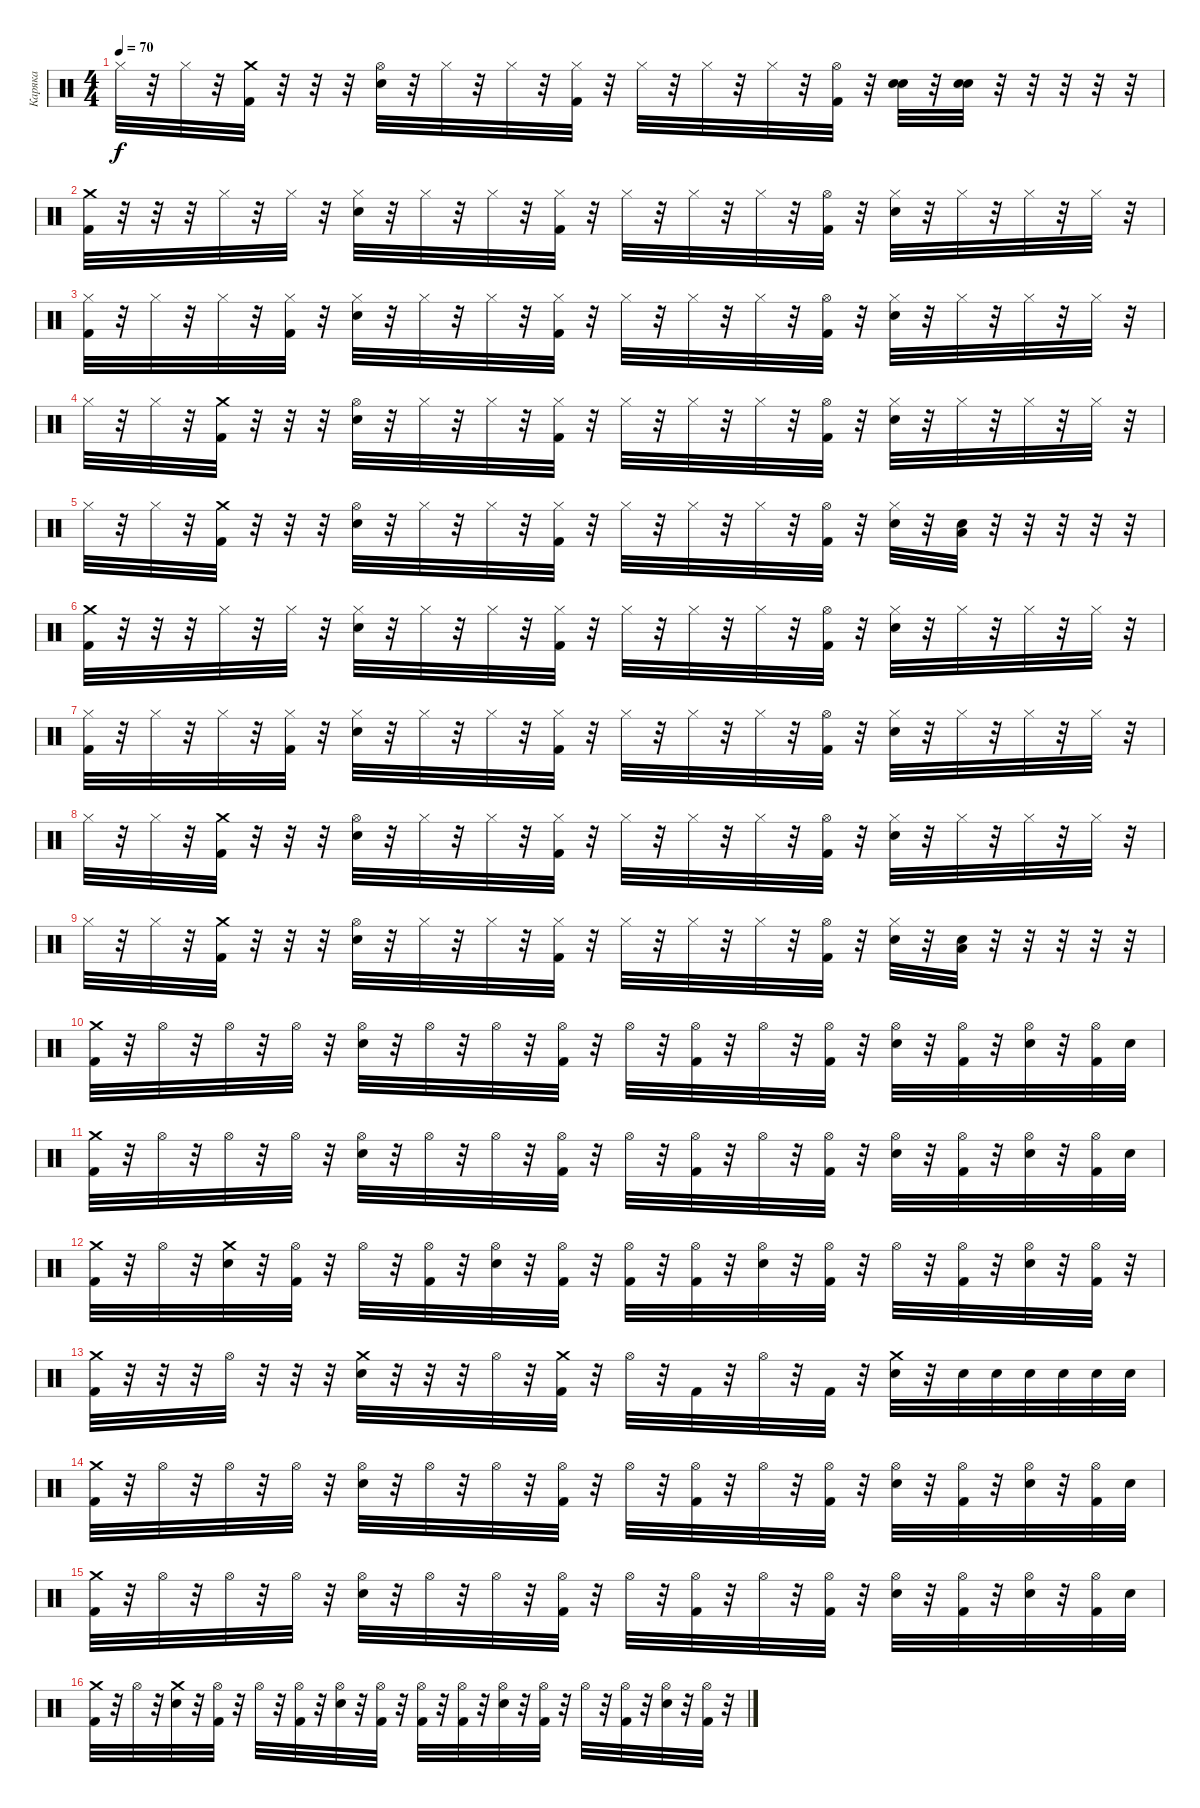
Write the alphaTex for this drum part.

\track ("Каряка" "Каряка") {instrument percussion}
\staff {score}
\articulation defaults
\ts (4 4)
\tempo 70
\clef neutral
\ks c "Hi-Hat (closed)".32{dy f}
r.32 "Hi-Hat (closed)".32 r.32 ("Crash medium (hit)" "Kick (hit) 2").32 r.32 r.32 r.32 ("Hi-Hat (open)" "Snare (hit) 2").32 r.32 "Hi-Hat (closed)".32 r.32 "Hi-Hat (closed)".32 r.32 ("Hi-Hat (closed)" "Kick (hit) 2").32 r.32 "Hi-Hat (closed)".32 r.32 "Hi-Hat (closed)".32 r.32 "Hi-Hat (closed)".32 r.32 ("Hi-Hat (open)" "Kick (hit) 2").32 r.32 ("Snare (hit) 2" "Snare (hit) 2").32 r.32 ("Snare (hit) 2" "Snare (hit) 2").32 r.32 r.32 r.32 r.32 r.32 |
("Crash medium (hit)" "Kick (hit) 2").32 r.32 r.32 r.32 "Hi-Hat (closed)".32 r.32 "Hi-Hat (closed)".32 r.32 ("Hi-Hat (closed)" "Snare (hit) 2").32 r.32 "Hi-Hat (closed)".32 r.32 "Hi-Hat (closed)".32 r.32 ("Hi-Hat (closed)" "Kick (hit) 2").32 r.32 "Hi-Hat (closed)".32 r.32 "Hi-Hat (closed)".32 r.32 "Hi-Hat (closed)".32 r.32 ("Hi-Hat (open)" "Kick (hit) 2").32 r.32 ("Hi-Hat (closed)" "Snare (hit) 2").32 r.32 "Hi-Hat (closed)".32 r.32 "Hi-Hat (closed)".32 r.32 "Hi-Hat (closed)".32 r.32 |
("Hi-Hat (closed)" "Kick (hit) 2").32 r.32 "Hi-Hat (closed)".32 r.32 "Hi-Hat (closed)".32 r.32 ("Hi-Hat (closed)" "Kick (hit) 2").32 r.32 ("Hi-Hat (closed)" "Snare (hit) 2").32 r.32 "Hi-Hat (closed)".32 r.32 "Hi-Hat (closed)".32 r.32 ("Hi-Hat (closed)" "Kick (hit) 2").32 r.32 "Hi-Hat (closed)".32 r.32 "Hi-Hat (closed)".32 r.32 "Hi-Hat (closed)".32 r.32 ("Hi-Hat (open)" "Kick (hit) 2").32 r.32 ("Hi-Hat (closed)" "Snare (hit) 2").32 r.32 "Hi-Hat (closed)".32 r.32 "Hi-Hat (closed)".32 r.32 "Hi-Hat (closed)".32 r.32 |
"Hi-Hat (closed)".32 r.32 "Hi-Hat (closed)".32 r.32 ("Crash medium (hit)" "Kick (hit) 2").32 r.32 r.32 r.32 ("Hi-Hat (open)" "Snare (hit) 2").32 r.32 "Hi-Hat (closed)".32 r.32 "Hi-Hat (closed)".32 r.32 ("Hi-Hat (closed)" "Kick (hit) 2").32 r.32 "Hi-Hat (closed)".32 r.32 "Hi-Hat (closed)".32 r.32 "Hi-Hat (closed)".32 r.32 ("Hi-Hat (open)" "Kick (hit) 2").32 r.32 ("Hi-Hat (closed)" "Snare (hit) 2").32 r.32 "Hi-Hat (closed)".32 r.32 "Hi-Hat (closed)".32 r.32 "Hi-Hat (closed)".32 r.32 |
"Hi-Hat (closed)".32 r.32 "Hi-Hat (closed)".32 r.32 ("Crash medium (hit)" "Kick (hit) 2").32 r.32 r.32 r.32 ("Hi-Hat (open)" "Snare (hit) 2").32 r.32 "Hi-Hat (closed)".32 r.32 "Hi-Hat (closed)".32 r.32 ("Hi-Hat (closed)" "Kick (hit) 2").32 r.32 "Hi-Hat (closed)".32 r.32 "Hi-Hat (closed)".32 r.32 "Hi-Hat (closed)".32 r.32 ("Hi-Hat (open)" "Kick (hit) 2").32 r.32 ("Hi-Hat (closed)" "Snare (hit) 2").32 r.32 ("Low Tom (hit)" "Snare (hit) 2").32 r.32 r.32 r.32 r.32 r.32 |
("Crash medium (hit)" "Kick (hit) 2").32 r.32 r.32 r.32 "Hi-Hat (closed)".32 r.32 "Hi-Hat (closed)".32 r.32 ("Hi-Hat (closed)" "Snare (hit) 2").32 r.32 "Hi-Hat (closed)".32 r.32 "Hi-Hat (closed)".32 r.32 ("Hi-Hat (closed)" "Kick (hit) 2").32 r.32 "Hi-Hat (closed)".32 r.32 "Hi-Hat (closed)".32 r.32 "Hi-Hat (closed)".32 r.32 ("Hi-Hat (open)" "Kick (hit) 2").32 r.32 ("Hi-Hat (closed)" "Snare (hit) 2").32 r.32 "Hi-Hat (closed)".32 r.32 "Hi-Hat (closed)".32 r.32 "Hi-Hat (closed)".32 r.32 |
("Hi-Hat (closed)" "Kick (hit) 2").32 r.32 "Hi-Hat (closed)".32 r.32 "Hi-Hat (closed)".32 r.32 ("Hi-Hat (closed)" "Kick (hit) 2").32 r.32 ("Hi-Hat (closed)" "Snare (hit) 2").32 r.32 "Hi-Hat (closed)".32 r.32 "Hi-Hat (closed)".32 r.32 ("Hi-Hat (closed)" "Kick (hit) 2").32 r.32 "Hi-Hat (closed)".32 r.32 "Hi-Hat (closed)".32 r.32 "Hi-Hat (closed)".32 r.32 ("Hi-Hat (open)" "Kick (hit) 2").32 r.32 ("Hi-Hat (closed)" "Snare (hit) 2").32 r.32 "Hi-Hat (closed)".32 r.32 "Hi-Hat (closed)".32 r.32 "Hi-Hat (closed)".32 r.32 |
"Hi-Hat (closed)".32 r.32 "Hi-Hat (closed)".32 r.32 ("Crash medium (hit)" "Kick (hit) 2").32 r.32 r.32 r.32 ("Hi-Hat (open)" "Snare (hit) 2").32 r.32 "Hi-Hat (closed)".32 r.32 "Hi-Hat (closed)".32 r.32 ("Hi-Hat (closed)" "Kick (hit) 2").32 r.32 "Hi-Hat (closed)".32 r.32 "Hi-Hat (closed)".32 r.32 "Hi-Hat (closed)".32 r.32 ("Hi-Hat (open)" "Kick (hit) 2").32 r.32 ("Hi-Hat (closed)" "Snare (hit) 2").32 r.32 "Hi-Hat (closed)".32 r.32 "Hi-Hat (closed)".32 r.32 "Hi-Hat (closed)".32 r.32 |
"Hi-Hat (closed)".32 r.32 "Hi-Hat (closed)".32 r.32 ("Crash medium (hit)" "Kick (hit) 2").32 r.32 r.32 r.32 ("Hi-Hat (open)" "Snare (hit) 2").32 r.32 "Hi-Hat (closed)".32 r.32 "Hi-Hat (closed)".32 r.32 ("Hi-Hat (closed)" "Kick (hit) 2").32 r.32 "Hi-Hat (closed)".32 r.32 "Hi-Hat (closed)".32 r.32 "Hi-Hat (closed)".32 r.32 ("Hi-Hat (open)" "Kick (hit) 2").32 r.32 ("Hi-Hat (closed)" "Snare (hit) 2").32 r.32 ("Low Tom (hit)" "Snare (hit) 2").32 r.32 r.32 r.32 r.32 r.32 |
("Crash medium (hit)" "Kick (hit) 2").32 r.32 "Hi-Hat (open)".32 r.32 "Hi-Hat (open)".32 r.32 "Hi-Hat (open)".32 r.32 ("Hi-Hat (open)" "Snare (hit) 2").32 r.32 "Hi-Hat (open)".32 r.32 "Hi-Hat (open)".32 r.32 ("Hi-Hat (open)" "Kick (hit) 2").32 r.32 "Hi-Hat (open)".32 r.32 ("Hi-Hat (open)" "Kick (hit) 2").32 r.32 "Hi-Hat (open)".32 r.32 ("Hi-Hat (open)" "Kick (hit) 2").32 r.32 ("Hi-Hat (open)" "Snare (hit) 2").32 r.32 ("Hi-Hat (open)" "Kick (hit) 2").32 r.32 ("Hi-Hat (open)" "Snare (hit) 2").32 r.32 ("Hi-Hat (open)" "Kick (hit) 2").32 "Snare (hit) 2".32 |
("Crash medium (hit)" "Kick (hit) 2").32 r.32 "Hi-Hat (open)".32 r.32 "Hi-Hat (open)".32 r.32 "Hi-Hat (open)".32 r.32 ("Hi-Hat (open)" "Snare (hit) 2").32 r.32 "Hi-Hat (open)".32 r.32 "Hi-Hat (open)".32 r.32 ("Hi-Hat (open)" "Kick (hit) 2").32 r.32 "Hi-Hat (open)".32 r.32 ("Hi-Hat (open)" "Kick (hit) 2").32 r.32 "Hi-Hat (open)".32 r.32 ("Hi-Hat (open)" "Kick (hit) 2").32 r.32 ("Hi-Hat (open)" "Snare (hit) 2").32 r.32 ("Hi-Hat (open)" "Kick (hit) 2").32 r.32 ("Hi-Hat (open)" "Snare (hit) 2").32 r.32 ("Hi-Hat (open)" "Kick (hit) 2").32 "Snare (hit) 2".32 |
("Crash medium (hit)" "Kick (hit) 2").32 r.32 "Hi-Hat (open)".32 r.32 ("Crash medium (hit)" "Snare (hit) 2").32 r.32 ("Hi-Hat (open)" "Kick (hit) 2").32 r.32 "Hi-Hat (open)".32 r.32 ("Hi-Hat (open)" "Kick (hit) 2").32 r.32 ("Hi-Hat (open)" "Snare (hit) 2").32 r.32 ("Hi-Hat (open)" "Kick (hit) 2").32 r.32 ("Hi-Hat (open)" "Kick (hit) 2").32 r.32 ("Hi-Hat (open)" "Kick (hit) 2").32 r.32 ("Hi-Hat (open)" "Snare (hit) 2").32 r.32 ("Hi-Hat (open)" "Kick (hit) 2").32 r.32 "Hi-Hat (open)".32 r.32 ("Hi-Hat (open)" "Kick (hit) 2").32 r.32 ("Hi-Hat (open)" "Snare (hit) 2").32 r.32 ("Hi-Hat (open)" "Kick (hit) 2").32 r.32 |
("Crash medium (hit)" "Kick (hit) 2").32 r.32 r.32 r.32 "Hi-Hat (open)".32 r.32 r.32 r.32 ("Crash medium (hit)" "Snare (hit) 2").32 r.32 r.32 r.32 "Hi-Hat (open)".32 r.32 ("Crash medium (hit)" "Kick (hit) 2").32 r.32 "Hi-Hat (open)".32 r.32 "Kick (hit) 2".32 r.32 "Hi-Hat (open)".32 r.32 "Kick (hit) 2".32 r.32 ("Crash medium (hit)" "Snare (hit) 2").32 r.32 "Snare (hit) 2".32 "Snare (hit) 2".32 "Snare (hit) 2".32 "Snare (hit) 2".32 "Snare (hit) 2".32 "Snare (hit) 2".32 |
("Crash medium (hit)" "Kick (hit) 2").32 r.32 "Hi-Hat (open)".32 r.32 "Hi-Hat (open)".32 r.32 "Hi-Hat (open)".32 r.32 ("Hi-Hat (open)" "Snare (hit) 2").32 r.32 "Hi-Hat (open)".32 r.32 "Hi-Hat (open)".32 r.32 ("Hi-Hat (open)" "Kick (hit) 2").32 r.32 "Hi-Hat (open)".32 r.32 ("Hi-Hat (open)" "Kick (hit) 2").32 r.32 "Hi-Hat (open)".32 r.32 ("Hi-Hat (open)" "Kick (hit) 2").32 r.32 ("Hi-Hat (open)" "Snare (hit) 2").32 r.32 ("Hi-Hat (open)" "Kick (hit) 2").32 r.32 ("Hi-Hat (open)" "Snare (hit) 2").32 r.32 ("Hi-Hat (open)" "Kick (hit) 2").32 "Snare (hit) 2".32 |
("Crash medium (hit)" "Kick (hit) 2").32 r.32 "Hi-Hat (open)".32 r.32 "Hi-Hat (open)".32 r.32 "Hi-Hat (open)".32 r.32 ("Hi-Hat (open)" "Snare (hit) 2").32 r.32 "Hi-Hat (open)".32 r.32 "Hi-Hat (open)".32 r.32 ("Hi-Hat (open)" "Kick (hit) 2").32 r.32 "Hi-Hat (open)".32 r.32 ("Hi-Hat (open)" "Kick (hit) 2").32 r.32 "Hi-Hat (open)".32 r.32 ("Hi-Hat (open)" "Kick (hit) 2").32 r.32 ("Hi-Hat (open)" "Snare (hit) 2").32 r.32 ("Hi-Hat (open)" "Kick (hit) 2").32 r.32 ("Hi-Hat (open)" "Snare (hit) 2").32 r.32 ("Hi-Hat (open)" "Kick (hit) 2").32 "Snare (hit) 2".32 |
("Crash medium (hit)" "Kick (hit) 2").32 r.32 "Hi-Hat (open)".32 r.32 ("Crash medium (hit)" "Snare (hit) 2").32 r.32 ("Hi-Hat (open)" "Kick (hit) 2").32 r.32 "Hi-Hat (open)".32 r.32 ("Hi-Hat (open)" "Kick (hit) 2").32 r.32 ("Hi-Hat (open)" "Snare (hit) 2").32 r.32 ("Hi-Hat (open)" "Kick (hit) 2").32 r.32 ("Hi-Hat (open)" "Kick (hit) 2").32 r.32 ("Hi-Hat (open)" "Kick (hit) 2").32 r.32 ("Hi-Hat (open)" "Snare (hit) 2").32 r.32 ("Hi-Hat (open)" "Kick (hit) 2").32 r.32 "Hi-Hat (open)".32 r.32 ("Hi-Hat (open)" "Kick (hit) 2").32 r.32 ("Hi-Hat (open)" "Snare (hit) 2").32 r.32 ("Hi-Hat (open)" "Kick (hit) 2").32 r.32
